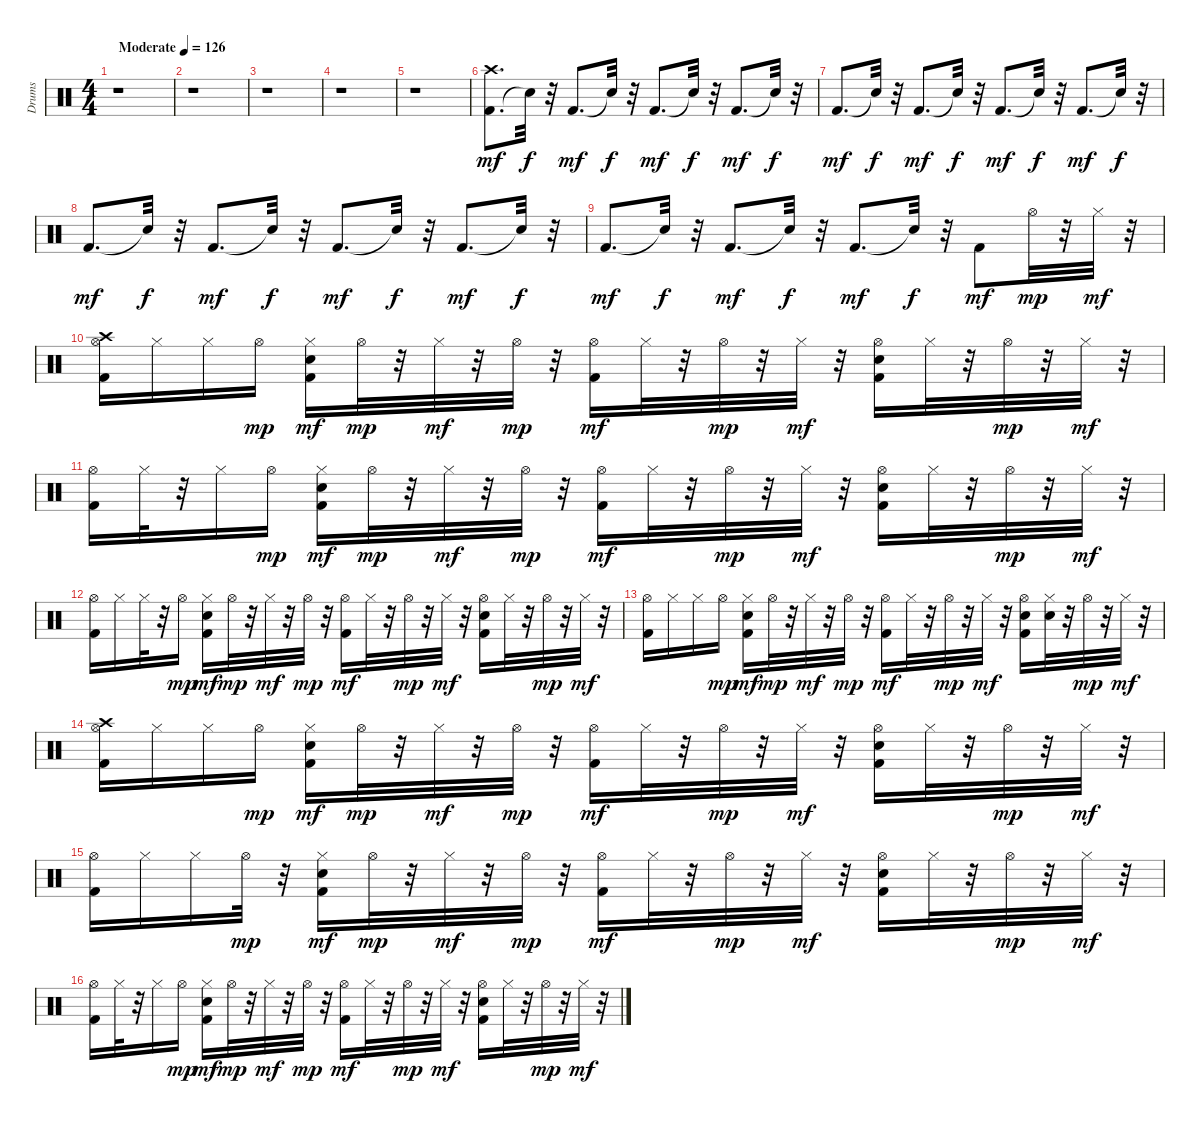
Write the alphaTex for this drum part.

\track ("Drums" "Drums") {instrument percussion}
\staff {score}
\articulation defaults
\ts (4 4)
\tempo (126 "Moderate")
\clef neutral
\ks c
r.1{dy mf} |
r.1 |
r.1 |
r.1 |
r.1 |
("Kick (hit) 2" "Crash high (hit)").8{d} "Snare (hit)"{t}.32{dy f} r.32 "Kick (hit) 2".8{d dy mf} "Snare (hit)"{t}.32{dy f} r.32 "Kick (hit) 2".8{d dy mf} "Snare (hit)"{t}.32{dy f} r.32 "Kick (hit) 2".8{d dy mf} "Snare (hit)"{t}.32{dy f} r.32 |
"Kick (hit) 2".8{d dy mf} "Snare (hit)"{t}.32{dy f} r.32 "Kick (hit) 2".8{d dy mf} "Snare (hit)"{t}.32{dy f} r.32 "Kick (hit) 2".8{d dy mf} "Snare (hit)"{t}.32{dy f} r.32 "Kick (hit) 2".8{d dy mf} "Snare (hit)"{t}.32{dy f} r.32 |
"Kick (hit) 2".8{d dy mf} "Snare (hit)"{t}.32{dy f} r.32 "Kick (hit) 2".8{d dy mf} "Snare (hit)"{t}.32{dy f} r.32 "Kick (hit) 2".8{d dy mf} "Snare (hit)"{t}.32{dy f} r.32 "Kick (hit) 2".8{d dy mf} "Snare (hit)"{t}.32{dy f} r.32 |
"Kick (hit) 2".8{d dy mf} "Snare (hit)"{t}.32{dy f} r.32 "Kick (hit) 2".8{d dy mf} "Snare (hit)"{t}.32{dy f} r.32 "Kick (hit) 2".8{d dy mf} "Snare (hit)"{t}.32{dy f} r.32 "Kick (hit) 2".8{dy mf} "Hi-Hat (open)".32{dy mp} r.32 "Hi-Hat (closed)".32{dy mf} r.32 |
("Hi-Hat (open)" "Crash high (hit)" "Kick (hit) 2").16 "Hi-Hat (closed)".16 "Hi-Hat (closed)".16 "Hi-Hat (open)".16{dy mp} ("Hi-Hat (closed)" "Kick (hit) 2" "Electric Snare (hit)").16{dy mf} "Hi-Hat (open)".32{dy mp} r.32 "Hi-Hat (closed)".32{dy mf} r.32 "Hi-Hat (open)".32{dy mp} r.32 ("Hi-Hat (open)" "Kick (hit) 2").16{dy mf} "Hi-Hat (closed)".32 r.32 "Hi-Hat (open)".32{dy mp} r.32 "Hi-Hat (closed)".32{dy mf} r.32 ("Hi-Hat (open)" "Kick (hit) 2" "Electric Snare (hit)").16 "Hi-Hat (closed)".32 r.32 "Hi-Hat (open)".32{dy mp} r.32 "Hi-Hat (closed)".32{dy mf} r.32 |
("Hi-Hat (open)" "Kick (hit) 2").16 "Hi-Hat (closed)".32 r.32 "Hi-Hat (closed)".16 "Hi-Hat (open)".16{dy mp} ("Hi-Hat (closed)" "Kick (hit) 2" "Electric Snare (hit)").16{dy mf} "Hi-Hat (open)".32{dy mp} r.32 "Hi-Hat (closed)".32{dy mf} r.32 "Hi-Hat (open)".32{dy mp} r.32 ("Hi-Hat (open)" "Kick (hit) 2").16{dy mf} "Hi-Hat (closed)".32 r.32 "Hi-Hat (open)".32{dy mp} r.32 "Hi-Hat (closed)".32{dy mf} r.32 ("Hi-Hat (open)" "Kick (hit) 2" "Electric Snare (hit)").16 "Hi-Hat (closed)".32 r.32 "Hi-Hat (open)".32{dy mp} r.32 "Hi-Hat (closed)".32{dy mf} r.32 |
("Hi-Hat (open)" "Kick (hit) 2").16 "Hi-Hat (closed)".16 "Hi-Hat (closed)".32 r.32 "Hi-Hat (open)".16{dy mp} ("Hi-Hat (closed)" "Kick (hit) 2" "Electric Snare (hit)").16{dy mf} "Hi-Hat (open)".32{dy mp} r.32 "Hi-Hat (closed)".32{dy mf} r.32 "Hi-Hat (open)".32{dy mp} r.32 ("Hi-Hat (open)" "Kick (hit) 2").16{dy mf} "Hi-Hat (closed)".32 r.32 "Hi-Hat (open)".32{dy mp} r.32 "Hi-Hat (closed)".32{dy mf} r.32 ("Hi-Hat (open)" "Kick (hit) 2" "Electric Snare (hit)").16 "Hi-Hat (closed)".32 r.32 "Hi-Hat (open)".32{dy mp} r.32 "Hi-Hat (closed)".32{dy mf} r.32 |
("Hi-Hat (open)" "Kick (hit) 2").16 "Hi-Hat (closed)".16 "Hi-Hat (closed)".16 "Hi-Hat (open)".16{dy mp} ("Hi-Hat (closed)" "Kick (hit) 2" "Electric Snare (hit)").16{dy mf} "Hi-Hat (open)".32{dy mp} r.32 "Hi-Hat (closed)".32{dy mf} r.32 "Hi-Hat (open)".32{dy mp} r.32 ("Hi-Hat (open)" "Kick (hit) 2").16{dy mf} "Hi-Hat (closed)".32 r.32 "Hi-Hat (open)".32{dy mp} r.32 "Hi-Hat (closed)".32{dy mf} r.32 ("Hi-Hat (open)" "Kick (hit) 2" "Snare (hit) 2").16 ("Hi-Hat (closed)" "Snare (hit) 2").32 r.32 "Hi-Hat (open)".32{dy mp} r.32 "Hi-Hat (closed)".32{dy mf} r.32 |
("Hi-Hat (open)" "Crash high (hit)" "Kick (hit) 2").16 "Hi-Hat (closed)".16 "Hi-Hat (closed)".16 "Hi-Hat (open)".16{dy mp} ("Hi-Hat (closed)" "Kick (hit) 2" "Electric Snare (hit)").16{dy mf} "Hi-Hat (open)".32{dy mp} r.32 "Hi-Hat (closed)".32{dy mf} r.32 "Hi-Hat (open)".32{dy mp} r.32 ("Hi-Hat (open)" "Kick (hit) 2").16{dy mf} "Hi-Hat (closed)".32 r.32 "Hi-Hat (open)".32{dy mp} r.32 "Hi-Hat (closed)".32{dy mf} r.32 ("Hi-Hat (open)" "Kick (hit) 2" "Electric Snare (hit)").16 "Hi-Hat (closed)".32 r.32 "Hi-Hat (open)".32{dy mp} r.32 "Hi-Hat (closed)".32{dy mf} r.32 |
("Hi-Hat (open)" "Kick (hit) 2").16 "Hi-Hat (closed)".16 "Hi-Hat (closed)".16 "Hi-Hat (open)".32{dy mp} r.32 ("Hi-Hat (closed)" "Kick (hit) 2" "Electric Snare (hit)").16{dy mf} "Hi-Hat (open)".32{dy mp} r.32 "Hi-Hat (closed)".32{dy mf} r.32 "Hi-Hat (open)".32{dy mp} r.32 ("Hi-Hat (open)" "Kick (hit) 2").16{dy mf} "Hi-Hat (closed)".32 r.32 "Hi-Hat (open)".32{dy mp} r.32 "Hi-Hat (closed)".32{dy mf} r.32 ("Hi-Hat (open)" "Kick (hit) 2" "Electric Snare (hit)").16 "Hi-Hat (closed)".32 r.32 "Hi-Hat (open)".32{dy mp} r.32 "Hi-Hat (closed)".32{dy mf} r.32 |
("Hi-Hat (open)" "Kick (hit) 2").16 "Hi-Hat (closed)".32 r.32 "Hi-Hat (closed)".16 "Hi-Hat (open)".16{dy mp} ("Hi-Hat (closed)" "Kick (hit) 2" "Electric Snare (hit)").16{dy mf} "Hi-Hat (open)".32{dy mp} r.32 "Hi-Hat (closed)".32{dy mf} r.32 "Hi-Hat (open)".32{dy mp} r.32 ("Hi-Hat (open)" "Kick (hit) 2").16{dy mf} "Hi-Hat (closed)".32 r.32 "Hi-Hat (open)".32{dy mp} r.32 "Hi-Hat (closed)".32{dy mf} r.32 ("Hi-Hat (open)" "Kick (hit) 2" "Electric Snare (hit)").16 "Hi-Hat (closed)".32 r.32 "Hi-Hat (open)".32{dy mp} r.32 "Hi-Hat (closed)".32{dy mf} r.32
